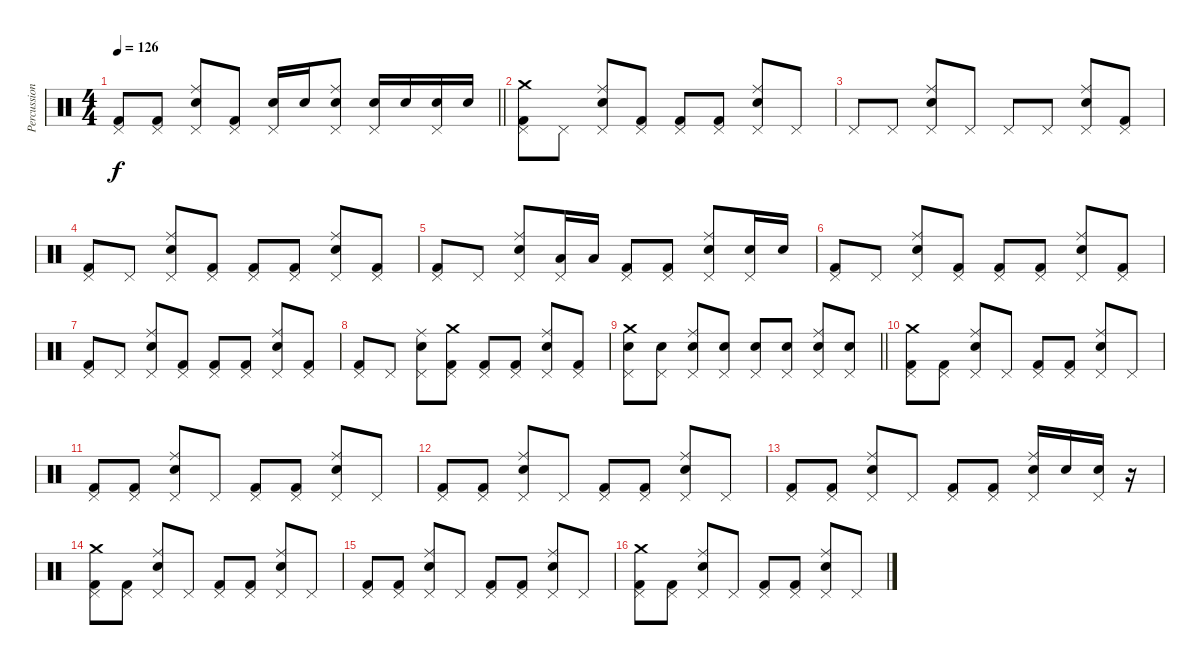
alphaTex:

\track ("Percussion" "Percussion") {instrument percussion}
\staff {score}
\articulation defaults
\ts (4 4)
\tempo 126
\clef neutral
\barLineRight lightlight
\ks c
("Pedal Hi-Hat (hit)" "Kick (hit) 2").8{dy f} ("Pedal Hi-Hat (hit)" "Kick (hit) 2").8 ("Pedal Hi-Hat (hit)" "Ride (middle)" "Snare (hit) 2").8 ("Pedal Hi-Hat (hit)" "Kick (hit) 2").8 ("Pedal Hi-Hat (hit)" "Snare (hit) 2").16 "Snare (hit) 2".16 ("Pedal Hi-Hat (hit)" "Ride (middle)" "Snare (hit) 2").8 ("Pedal Hi-Hat (hit)" "Snare (hit) 2").16 "Snare (hit) 2".16 ("Pedal Hi-Hat (hit)" "Snare (hit) 2").16 "Snare (hit) 2".16 |
("Pedal Hi-Hat (hit)" "Crash medium (hit)" "Kick (hit) 2").8 "Pedal Hi-Hat (hit)".8 ("Pedal Hi-Hat (hit)" "Ride (middle)" "Snare (hit) 2").8 ("Pedal Hi-Hat (hit)" "Kick (hit) 2").8 ("Pedal Hi-Hat (hit)" "Kick (hit) 2").8 ("Pedal Hi-Hat (hit)" "Kick (hit) 2").8 ("Pedal Hi-Hat (hit)" "Ride (middle)" "Snare (hit) 2").8 "Pedal Hi-Hat (hit)".8 |
"Pedal Hi-Hat (hit)".8 "Pedal Hi-Hat (hit)".8 ("Pedal Hi-Hat (hit)" "Ride (middle)" "Snare (hit) 2").8 "Pedal Hi-Hat (hit)".8 "Pedal Hi-Hat (hit)".8 "Pedal Hi-Hat (hit)".8 ("Pedal Hi-Hat (hit)" "Ride (middle)" "Snare (hit) 2").8 ("Pedal Hi-Hat (hit)" "Kick (hit) 2").8 |
("Pedal Hi-Hat (hit)" "Kick (hit) 2").8 "Pedal Hi-Hat (hit)".8 ("Pedal Hi-Hat (hit)" "Ride (middle)" "Snare (hit) 2").8 ("Pedal Hi-Hat (hit)" "Kick (hit) 2").8 ("Pedal Hi-Hat (hit)" "Kick (hit) 2").8 ("Pedal Hi-Hat (hit)" "Kick (hit) 2").8 ("Pedal Hi-Hat (hit)" "Ride (middle)" "Snare (hit) 2").8 ("Pedal Hi-Hat (hit)" "Kick (hit) 2").8 |
("Pedal Hi-Hat (hit)" "Kick (hit) 2").8 "Pedal Hi-Hat (hit)".8 ("Pedal Hi-Hat (hit)" "Ride (middle)" "Snare (hit) 2").8 ("Pedal Hi-Hat (hit)" "Low Tom (hit)").16 "Low Tom (hit)".16 ("Pedal Hi-Hat (hit)" "Kick (hit) 2").8 ("Pedal Hi-Hat (hit)" "Kick (hit) 2").8 ("Pedal Hi-Hat (hit)" "Ride (middle)" "Snare (hit) 2").8 ("Pedal Hi-Hat (hit)" "Snare (hit) 2").16 "Snare (hit) 2".16 |
("Pedal Hi-Hat (hit)" "Kick (hit) 2").8 "Pedal Hi-Hat (hit)".8 ("Pedal Hi-Hat (hit)" "Ride (middle)" "Snare (hit) 2").8 ("Pedal Hi-Hat (hit)" "Kick (hit) 2").8 ("Pedal Hi-Hat (hit)" "Kick (hit) 2").8 ("Pedal Hi-Hat (hit)" "Kick (hit) 2").8 ("Pedal Hi-Hat (hit)" "Ride (middle)" "Snare (hit) 2").8 ("Pedal Hi-Hat (hit)" "Kick (hit) 2").8 |
("Pedal Hi-Hat (hit)" "Kick (hit) 2").8 "Pedal Hi-Hat (hit)".8 ("Pedal Hi-Hat (hit)" "Ride (middle)" "Snare (hit) 2").8 ("Pedal Hi-Hat (hit)" "Kick (hit) 2").8 ("Pedal Hi-Hat (hit)" "Kick (hit) 2").8 ("Pedal Hi-Hat (hit)" "Kick (hit) 2").8 ("Pedal Hi-Hat (hit)" "Ride (middle)" "Snare (hit) 2").8 ("Pedal Hi-Hat (hit)" "Kick (hit) 2").8 |
("Pedal Hi-Hat (hit)" "Kick (hit) 2").8 "Pedal Hi-Hat (hit)".8 ("Pedal Hi-Hat (hit)" "Ride (middle)" "Snare (hit) 2").8 ("Pedal Hi-Hat (hit)" "Crash medium (hit)" "Kick (hit) 2").8 ("Pedal Hi-Hat (hit)" "Kick (hit) 2").8 ("Pedal Hi-Hat (hit)" "Kick (hit) 2").8 ("Pedal Hi-Hat (hit)" "Ride (middle)" "Snare (hit) 2").8 ("Pedal Hi-Hat (hit)" "Kick (hit) 2").8 |
\barLineRight lightlight
("Pedal Hi-Hat (hit)" "Crash medium (hit)" "Snare (hit) 2").8 ("Pedal Hi-Hat (hit)" "Snare (hit) 2").8 ("Pedal Hi-Hat (hit)" "Ride (middle)" "Snare (hit) 2").8 ("Pedal Hi-Hat (hit)" "Snare (hit) 2").8 ("Pedal Hi-Hat (hit)" "Snare (hit) 2").8 ("Pedal Hi-Hat (hit)" "Snare (hit) 2").8 ("Pedal Hi-Hat (hit)" "Ride (middle)" "Snare (hit) 2").8 ("Pedal Hi-Hat (hit)" "Snare (hit) 2").8 |
("Pedal Hi-Hat (hit)" "Crash medium (hit)" "Kick (hit) 2").8 ("Pedal Hi-Hat (hit)" "Kick (hit) 2").8 ("Pedal Hi-Hat (hit)" "Ride (middle)" "Snare (hit) 2").8 "Pedal Hi-Hat (hit)".8 ("Pedal Hi-Hat (hit)" "Kick (hit) 2").8 ("Pedal Hi-Hat (hit)" "Kick (hit) 2").8 ("Pedal Hi-Hat (hit)" "Ride (middle)" "Snare (hit) 2").8 "Pedal Hi-Hat (hit)".8 |
("Pedal Hi-Hat (hit)" "Kick (hit) 2").8 ("Pedal Hi-Hat (hit)" "Kick (hit) 2").8 ("Pedal Hi-Hat (hit)" "Ride (middle)" "Snare (hit) 2").8 "Pedal Hi-Hat (hit)".8 ("Pedal Hi-Hat (hit)" "Kick (hit) 2").8 ("Pedal Hi-Hat (hit)" "Kick (hit) 2").8 ("Pedal Hi-Hat (hit)" "Ride (middle)" "Snare (hit) 2").8 "Pedal Hi-Hat (hit)".8 |
("Pedal Hi-Hat (hit)" "Kick (hit) 2").8 ("Pedal Hi-Hat (hit)" "Kick (hit) 2").8 ("Pedal Hi-Hat (hit)" "Ride (middle)" "Snare (hit) 2").8 "Pedal Hi-Hat (hit)".8 ("Pedal Hi-Hat (hit)" "Kick (hit) 2").8 ("Pedal Hi-Hat (hit)" "Kick (hit) 2").8 ("Pedal Hi-Hat (hit)" "Ride (middle)" "Snare (hit) 2").8 "Pedal Hi-Hat (hit)".8 |
("Pedal Hi-Hat (hit)" "Kick (hit) 2").8 ("Pedal Hi-Hat (hit)" "Kick (hit) 2").8 ("Pedal Hi-Hat (hit)" "Ride (middle)" "Snare (hit) 2").8 "Pedal Hi-Hat (hit)".8 ("Pedal Hi-Hat (hit)" "Kick (hit) 2").8 ("Pedal Hi-Hat (hit)" "Kick (hit) 2").8 ("Pedal Hi-Hat (hit)" "Ride (middle)" "Snare (hit) 2").16 "Snare (hit) 2".16 ("Pedal Hi-Hat (hit)" "Snare (hit) 2").16 r.16 |
("Pedal Hi-Hat (hit)" "Crash medium (hit)" "Kick (hit) 2").8 ("Pedal Hi-Hat (hit)" "Kick (hit) 2").8 ("Pedal Hi-Hat (hit)" "Ride (middle)" "Snare (hit) 2").8 "Pedal Hi-Hat (hit)".8 ("Pedal Hi-Hat (hit)" "Kick (hit) 2").8 ("Pedal Hi-Hat (hit)" "Kick (hit) 2").8 ("Pedal Hi-Hat (hit)" "Ride (middle)" "Snare (hit) 2").8 "Pedal Hi-Hat (hit)".8 |
("Pedal Hi-Hat (hit)" "Kick (hit) 2").8 ("Pedal Hi-Hat (hit)" "Kick (hit) 2").8 ("Pedal Hi-Hat (hit)" "Ride (middle)" "Snare (hit) 2").8 "Pedal Hi-Hat (hit)".8 ("Pedal Hi-Hat (hit)" "Kick (hit) 2").8 ("Pedal Hi-Hat (hit)" "Kick (hit) 2").8 ("Pedal Hi-Hat (hit)" "Ride (middle)" "Snare (hit) 2").8 "Pedal Hi-Hat (hit)".8 |
("Pedal Hi-Hat (hit)" "Crash medium (hit)" "Kick (hit) 2").8 ("Pedal Hi-Hat (hit)" "Kick (hit) 2").8 ("Pedal Hi-Hat (hit)" "Ride (middle)" "Snare (hit) 2").8 "Pedal Hi-Hat (hit)".8 ("Pedal Hi-Hat (hit)" "Kick (hit) 2").8 ("Pedal Hi-Hat (hit)" "Kick (hit) 2").8 ("Pedal Hi-Hat (hit)" "Ride (middle)" "Snare (hit) 2").8 "Pedal Hi-Hat (hit)".8
